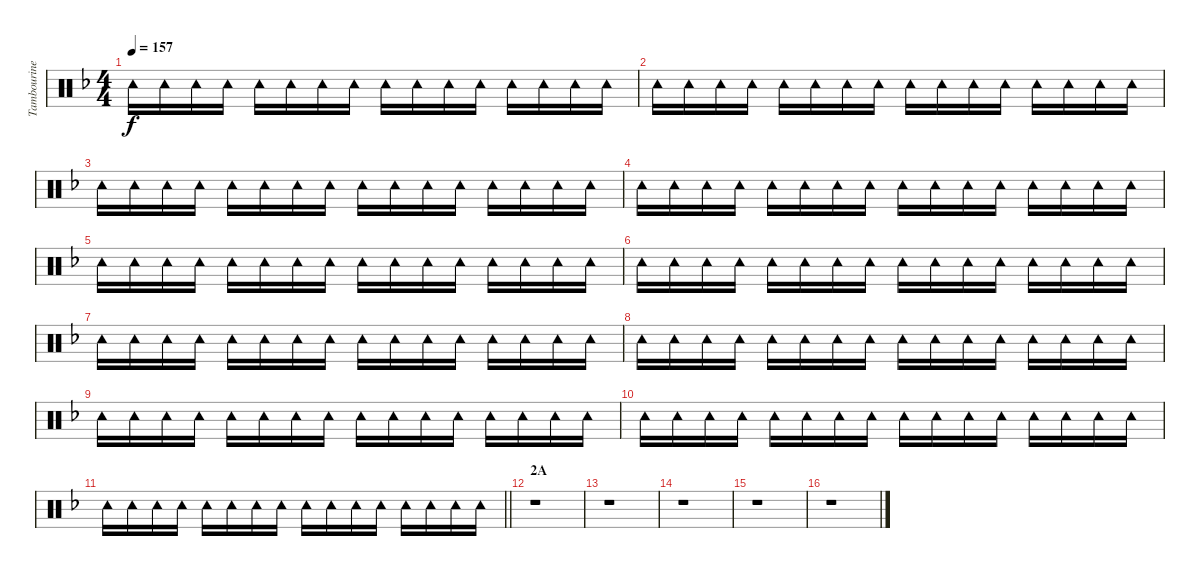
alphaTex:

\track ("Tambourine" "Tambourine") {instrument percussion}
\staff {score}
\articulation defaults
\ts (4 4)
\tempo 157
\clef neutral
\ks f "Tambourine (hit)".16{dy f} "Tambourine (hit)".16 "Tambourine (hit)".16 "Tambourine (hit)".16 "Tambourine (hit)".16 "Tambourine (hit)".16 "Tambourine (hit)".16 "Tambourine (hit)".16 "Tambourine (hit)".16 "Tambourine (hit)".16 "Tambourine (hit)".16 "Tambourine (hit)".16 "Tambourine (hit)".16 "Tambourine (hit)".16 "Tambourine (hit)".16 "Tambourine (hit)".16
|
"Tambourine (hit)".16 "Tambourine (hit)".16 "Tambourine (hit)".16 "Tambourine (hit)".16 "Tambourine (hit)".16 "Tambourine (hit)".16 "Tambourine (hit)".16 "Tambourine (hit)".16 "Tambourine (hit)".16 "Tambourine (hit)".16 "Tambourine (hit)".16 "Tambourine (hit)".16 "Tambourine (hit)".16 "Tambourine (hit)".16 "Tambourine (hit)".16 "Tambourine (hit)".16 |
"Tambourine (hit)".16 "Tambourine (hit)".16 "Tambourine (hit)".16 "Tambourine (hit)".16 "Tambourine (hit)".16 "Tambourine (hit)".16 "Tambourine (hit)".16 "Tambourine (hit)".16 "Tambourine (hit)".16 "Tambourine (hit)".16 "Tambourine (hit)".16 "Tambourine (hit)".16 "Tambourine (hit)".16 "Tambourine (hit)".16 "Tambourine (hit)".16 "Tambourine (hit)".16 |
"Tambourine (hit)".16 "Tambourine (hit)".16 "Tambourine (hit)".16 "Tambourine (hit)".16 "Tambourine (hit)".16 "Tambourine (hit)".16 "Tambourine (hit)".16 "Tambourine (hit)".16 "Tambourine (hit)".16 "Tambourine (hit)".16 "Tambourine (hit)".16 "Tambourine (hit)".16 "Tambourine (hit)".16 "Tambourine (hit)".16 "Tambourine (hit)".16 "Tambourine (hit)".16 |
"Tambourine (hit)".16 "Tambourine (hit)".16 "Tambourine (hit)".16 "Tambourine (hit)".16 "Tambourine (hit)".16 "Tambourine (hit)".16 "Tambourine (hit)".16 "Tambourine (hit)".16 "Tambourine (hit)".16 "Tambourine (hit)".16 "Tambourine (hit)".16 "Tambourine (hit)".16 "Tambourine (hit)".16 "Tambourine (hit)".16 "Tambourine (hit)".16 "Tambourine (hit)".16 |
"Tambourine (hit)".16 "Tambourine (hit)".16 "Tambourine (hit)".16 "Tambourine (hit)".16 "Tambourine (hit)".16 "Tambourine (hit)".16 "Tambourine (hit)".16 "Tambourine (hit)".16 "Tambourine (hit)".16 "Tambourine (hit)".16 "Tambourine (hit)".16 "Tambourine (hit)".16 "Tambourine (hit)".16 "Tambourine (hit)".16 "Tambourine (hit)".16 "Tambourine (hit)".16 |
"Tambourine (hit)".16 "Tambourine (hit)".16 "Tambourine (hit)".16 "Tambourine (hit)".16 "Tambourine (hit)".16 "Tambourine (hit)".16 "Tambourine (hit)".16 "Tambourine (hit)".16 "Tambourine (hit)".16 "Tambourine (hit)".16 "Tambourine (hit)".16 "Tambourine (hit)".16 "Tambourine (hit)".16 "Tambourine (hit)".16 "Tambourine (hit)".16 "Tambourine (hit)".16 |
"Tambourine (hit)".16 "Tambourine (hit)".16 "Tambourine (hit)".16 "Tambourine (hit)".16 "Tambourine (hit)".16 "Tambourine (hit)".16 "Tambourine (hit)".16 "Tambourine (hit)".16 "Tambourine (hit)".16 "Tambourine (hit)".16 "Tambourine (hit)".16 "Tambourine (hit)".16 "Tambourine (hit)".16 "Tambourine (hit)".16 "Tambourine (hit)".16 "Tambourine (hit)".16 |
"Tambourine (hit)".16 "Tambourine (hit)".16 "Tambourine (hit)".16 "Tambourine (hit)".16 "Tambourine (hit)".16 "Tambourine (hit)".16 "Tambourine (hit)".16 "Tambourine (hit)".16 "Tambourine (hit)".16 "Tambourine (hit)".16 "Tambourine (hit)".16 "Tambourine (hit)".16 "Tambourine (hit)".16 "Tambourine (hit)".16 "Tambourine (hit)".16 "Tambourine (hit)".16 |
"Tambourine (hit)".16 "Tambourine (hit)".16 "Tambourine (hit)".16 "Tambourine (hit)".16 "Tambourine (hit)".16 "Tambourine (hit)".16 "Tambourine (hit)".16 "Tambourine (hit)".16 "Tambourine (hit)".16 "Tambourine (hit)".16 "Tambourine (hit)".16 "Tambourine (hit)".16 "Tambourine (hit)".16 "Tambourine (hit)".16 "Tambourine (hit)".16 "Tambourine (hit)".16 |
\barLineRight lightlight "Tambourine (hit)".16 "Tambourine (hit)".16 "Tambourine (hit)".16 "Tambourine (hit)".16 "Tambourine (hit)".16 "Tambourine (hit)".16 "Tambourine (hit)".16 "Tambourine (hit)".16 "Tambourine (hit)".16 "Tambourine (hit)".16 "Tambourine (hit)".16 "Tambourine (hit)".16 "Tambourine (hit)".16 "Tambourine (hit)".16 "Tambourine (hit)".16 "Tambourine (hit)".16
|
\section ("" "2A")
r.1 |
r.1 |
r.1 |
r.1 |
r.1
